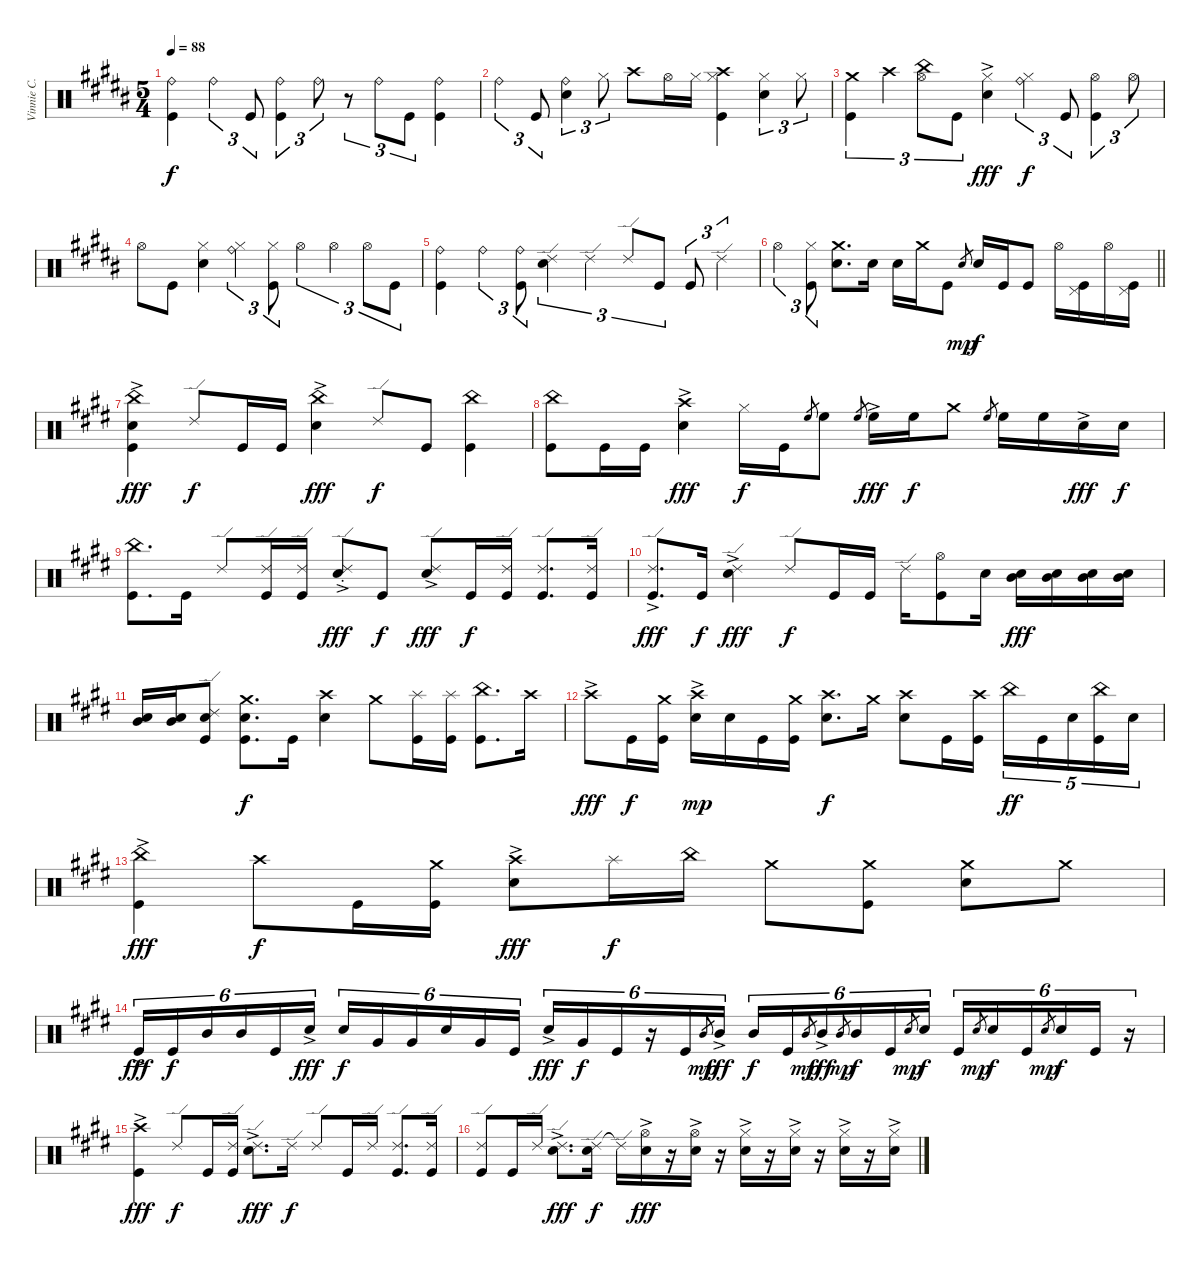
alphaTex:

\track ("Vinnie C." "Vinnie C.") {instrument percussion}
\staff {score}
\articulation defaults
\ts (5 4)
\tempo 88
\clef neutral
\ks b
("Ride (bell)" "Kick (hit)").4{dy f} "Ride (bell)".4{tu (3 2)} "Kick (hit)".8{tu (3 2)} ("Ride (bell)" "Kick (hit)").4{tu (3 2)} "Ride (bell)".8{tu (3 2)} r.8{tu (3 2)} "Ride (bell)".8{tu (3 2)} "Kick (hit)".8{tu (3 2)} ("Ride (bell)" "Kick (hit)").4 |
"Ride (bell)".4{tu (3 2)} "Kick (hit)".8{tu (3 2)} ("Ride (bell)" "Electric Snare (hit)").4{tu (3 2)} "Hi-Hat (closed)".8{tu (3 2)} "Crash high (hit)".8 "Hi-Hat (open)".16 "Hi-Hat (closed)".16 ("Crash high (hit)" "Hi-Hat (closed)" "Kick (hit)").4 ("Hi-Hat (closed)" "Electric Snare (hit)").4{tu (3 2)} "Hi-Hat (closed)".8{tu (3 2)} |
("Crash medium (hit)" "Kick (hit)").4{tu (3 2)} "Crash high (hit)".4{tu (3 2)} ("China (hit)" "Hi-Hat (open)").8{tu (3 2)} "Kick (hit)".8{tu (3 2)} ("Hi-Hat (closed)"{ac} "Electric Snare (hit)").4{dy fff} ("Ride (bell)" "Hi-Hat (closed)").4{tu (3 2) dy f} "Kick (hit)".8{tu (3 2)} ("Hi-Hat (open)" "Kick (hit)").4{tu (3 2)} "Hi-Hat (open)".8{tu (3 2)} |
"Hi-Hat (open)".8 "Kick (hit)".8 ("Hi-Hat (closed)" "Electric Snare (hit)").4 ("Ride (bell)" "Hi-Hat (closed)").4{tu (3 2)} ("Hi-Hat (closed)" "Kick (hit)").8{tu (3 2)} "Hi-Hat (open)".4{tu (3 2)} "Hi-Hat (open)".4{tu (3 2)} "Hi-Hat (open)".8{tu (3 2)} "Kick (hit)".8{tu (3 2)} |
("Ride (bell)" "Kick (hit)").4 "Ride (bell)".4{tu (3 2)} ("Ride (bell)" "Kick (hit)").8{tu (3 2)} ("Ride (edge) 2" "Electric Snare (hit)").4{tu (3 2)} "Ride (edge) 2".4{tu (3 2)} "Ride (edge) 2".8{tu (3 2)} "Kick (hit)".8{tu (3 2)} "Kick (hit)".8{tu (3 2)} "Ride (edge) 2".4{tu (3 2)} |
\barLineRight lightlight "Hi-Hat (open)".4{tu (3 2)}
("Hi-Hat (closed)" "Kick (hit)").8{tu (3 2)} ("Crash medium (hit)" "Electric Snare (hit)").8{d} "Electric Snare (hit)".16 "Electric Snare (hit)".16 "Crash medium (hit)".16 "Kick (hit)".8 "Electric Snare (hit)".8{gr dy mp} "Electric Snare (hit)".16{dy f} "Kick (hit)".16 "Kick (hit)".8 "Hi-Hat (open)".16 ("Pedal Hi-Hat (hit)" "Kick (hit)").16 "Hi-Hat (open)".16 ("Pedal Hi-Hat (hit)" "Kick (hit)").16 |
\ks e
("China (hit)"{ac} "Electric Snare (hit)" "Kick (hit)").4{dy fff} "Ride (edge) 2".8{dy f} "Kick (hit)".16 "Kick (hit)".16 ("China (hit)"{ac} "Electric Snare (hit)").4{dy fff} "Ride (edge) 2".8{dy f} "Kick (hit)".8 ("China (hit)" "Kick (hit)").4 |
("China (hit)" "Kick (hit)").8 "Kick (hit)".16 "Kick (hit)".16 ("Crash high (hit)"{ac} "Electric Snare (hit)").4{dy fff} "Hi-Hat (closed)".16{dy f} "Kick (hit)".16 "High Floor Tom (hit)".8{gr} "High Floor Tom (hit)".8 "High Floor Tom (hit)".8{gr} "High Floor Tom (hit)"{ac}.16{dy fff} "High Floor Tom (hit)".16{dy f} "Crash medium (hit)".8 "High Floor Tom (hit)".8{gr} "High Floor Tom (hit)".16 "High Floor Tom (hit)".16 "Electric Snare (hit)"{ac}.16{dy fff} "Electric Snare (hit)".16{dy f} |
("China (hit)" "Kick (hit)").8{d} "Kick (hit)".16 "Ride (edge) 2".8 ("Ride (edge) 2" "Kick (hit)").16 ("Ride (edge) 2" "Kick (hit)").16 ("Ride (edge) 2"{ac st} "Electric Snare (hit)").8{dy fff} "Kick (hit)".8{dy f} ("Ride (edge) 2"{ac} "Electric Snare (hit)").8{dy fff} "Kick (hit)".16{dy f} ("Ride (edge) 2" "Kick (hit)").16 ("Ride (edge) 2" "Kick (hit)").8{d} ("Ride (edge) 2" "Kick (hit)").16 |
("Ride (edge) 2"{ac} "Kick (hit)").8{d dy fff} "Kick (hit)".16{dy f} ("Ride (edge) 2"{ac} "Electric Snare (hit)").4{dy fff} "Ride (edge) 2".8{dy f} "Kick (hit)".16 "Kick (hit)".16 "Ride (edge) 2".16 ("Hi-Hat (open)" "Kick (hit)").8 "Electric Snare (hit)".16 ("Mid Tom (hit)" "Electric Snare (hit)").16{dy fff} ("Mid Tom (hit)" "Electric Snare (hit)").16 ("Mid Tom (hit)" "Electric Snare (hit)").16 ("Mid Tom (hit)" "Electric Snare (hit)").16 |
("Mid Tom (hit)" "Electric Snare (hit)").16 ("Mid Tom (hit)" "Electric Snare (hit)").16 ("Ride (edge) 2" "Electric Snare (hit)" "Kick (hit)").8 ("Crash medium (hit)" "Electric Snare (hit)" "Kick (hit)").8{d dy f} "Kick (hit)".16 ("Crash high (hit)" "Electric Snare (hit)").4 "Crash medium (hit)".8 ("Splash (hit)" "Kick (hit)").16 ("Splash (hit)" "Kick (hit)").16 ("China (hit)" "Kick (hit)").8{d} "Crash high (hit)".16 |
"Crash high (hit)"{ac}.8{dy fff} "Kick (hit)".16{dy f} ("Crash medium (hit)" "Kick (hit)").16 ("Crash high (hit)"{ac} "Electric Snare (hit)").16{dy mp} "Electric Snare (hit)".16 "Kick (hit)".16 ("Crash medium (hit)" "Kick (hit)").16 ("Crash high (hit)" "Electric Snare (hit)").8{d dy f} "Crash medium (hit)".16 ("Crash high (hit)" "Electric Snare (hit)").8 "Kick (hit)".16 ("Crash high (hit)" "Kick (hit)").16 "China (hit)".16{tu (5 4) dy ff} "Kick (hit)".16{tu (5 4)} "Electric Snare (hit)".16{tu (5 4)} ("China (hit)" "Kick (hit)").16{tu (5 4)} "Electric Snare (hit)".16{tu (5 4)} |
("China (hit)"{ac} "Kick (hit)").4{dy fff} "Crash high (hit)".8{dy f} "Kick (hit)".16 ("Crash medium (hit)" "Kick (hit)").16 ("Crash high (hit)"{ac} "Electric Snare (hit)").8{dy fff} "Splash (hit)".16{dy f} "China (hit)".16 "Crash medium (hit)".8 ("Crash medium (hit)" "Kick (hit)").8 ("Crash medium (hit)" "Electric Snare (hit)").8 "Crash medium (hit)".8 |
"Kick (hit)"{ac}.16{tu (6 4) dy fff} "Kick (hit)".16{tu (6 4) dy f} "Mid Tom (hit)".16{tu (6 4)} "Mid Tom (hit)".16{tu (6 4)} "Kick (hit)".16{tu (6 4)} "Electric Snare (hit)"{ac}.16{tu (6 4) dy fff} "Electric Snare (hit)".16{tu (6 4) dy f} "Very Low Tom (hit)".16{tu (6 4)} "Very Low Tom (hit)".16{tu (6 4)} "Electric Snare (hit)".16{tu (6 4)} "Very Low Tom (hit)".16{tu (6 4)} "Kick (hit)".16{tu (6 4)} "Electric Snare (hit)"{ac}.16{tu (6 4) dy fff} "Very Low Tom (hit)".16{tu (6 4) dy f} "Kick (hit)".16{tu (6 4)} r.16{tu (6 4)} "Kick (hit)".16{tu (6 4)} "Mid Tom (hit)".8{gr dy mp} "Mid Tom (hit)"{ac}.16{tu (6 4) dy fff} "Mid Tom (hit)".16{tu (6 4) dy f} "Kick (hit)".16{tu (6 4)} "Mid Tom (hit)".8{gr dy mp} "Mid Tom (hit)"{ac}.16{tu (6 4) dy fff} "Mid Tom (hit)".8{gr dy mp} "Mid Tom (hit)".16{tu (6 4) dy f} "Kick (hit)".16{tu (6 4)} "Electric Snare (hit)".8{gr dy mp} "Electric Snare (hit)".16{tu (6 4) dy f} "Kick (hit)".16{tu (6 4)} "Electric Snare (hit)".8{gr dy mp} "Electric Snare (hit)".16{tu (6 4) dy f} "Kick (hit)".16{tu (6 4)} "Electric Snare (hit)".8{gr dy mp} "Electric Snare (hit)".16{tu (6 4) dy f} "Kick (hit)".16{tu (6 4)} r.16{tu (6 4)} |
("Crash high (hit)"{ac} "Kick (hit)").4{dy fff} "Ride (edge) 2".8{dy f} "Kick (hit)".16 ("Ride (edge) 2" "Kick (hit)").16 ("Ride (edge) 2"{ac} "Electric Snare (hit)").8{d dy fff} "Ride (edge) 2".16{dy f} "Ride (edge) 2".8 "Kick (hit)".16 "Ride (edge) 2".16 ("Ride (edge) 2" "Kick (hit)").8{d} ("Ride (edge) 2" "Kick (hit)").16 |
("Ride (edge) 2" "Kick (hit)").8 "Kick (hit)".16 "Ride (edge) 2".16 ("Ride (edge) 2"{ac} "Electric Snare (hit)").8{d dy fff} ("Ride (edge) 2" "Electric Snare (hit)").16{dy f} "Ride (edge) 2"{t}.16 ("Hi-Hat (open)"{ac} "Electric Snare (hit)").16{dy fff} r.16 ("Hi-Hat (open)"{ac} "Electric Snare (hit)").16 r.16 ("Hi-Hat (closed)"{ac} "Electric Snare (hit)").16 r.16 ("Hi-Hat (closed)"{ac} "Electric Snare (hit)").16 r.16 ("Hi-Hat (closed)"{ac} "Electric Snare (hit)").16 r.16 ("Hi-Hat (closed)"{ac} "Electric Snare (hit)").16
